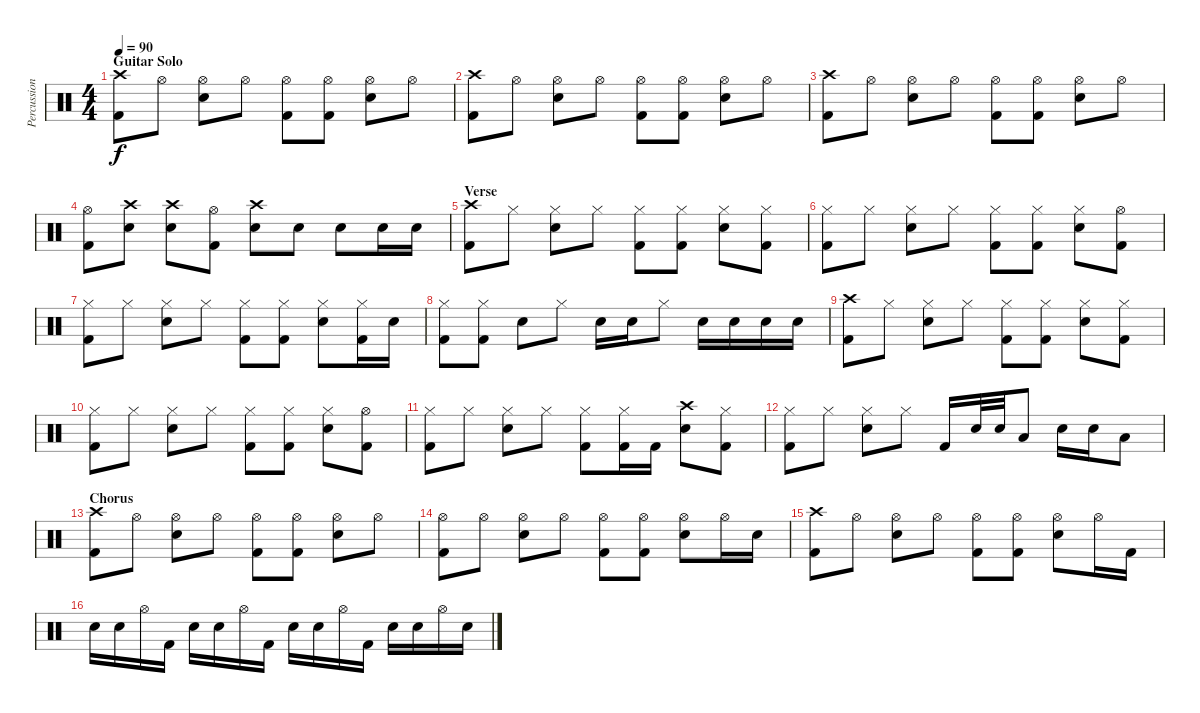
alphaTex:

\track ("Percussion" "Percussion") {instrument percussion}
\staff {score}
\articulation defaults
\ts (4 4)
\section ("" "Guitar Solo")
\tempo 90
\clef neutral
\ks c
("Crash high (hit)" "Kick (hit) 2").8{dy f} "Hi-Hat (open)".8 ("Hi-Hat (open)" "Electric Snare (hit)").8 "Hi-Hat (open)".8 ("Hi-Hat (open)" "Kick (hit) 2").8 ("Hi-Hat (open)" "Kick (hit) 2").8 ("Hi-Hat (open)" "Electric Snare (hit)").8 "Hi-Hat (open)".8 |
("Crash high (hit)" "Kick (hit) 2").8 "Hi-Hat (open)".8 ("Hi-Hat (open)" "Electric Snare (hit)").8 "Hi-Hat (open)".8 ("Hi-Hat (open)" "Kick (hit) 2").8 ("Hi-Hat (open)" "Kick (hit) 2").8 ("Hi-Hat (open)" "Electric Snare (hit)").8 "Hi-Hat (open)".8 |
("Crash high (hit)" "Kick (hit) 2").8 "Hi-Hat (open)".8 ("Hi-Hat (open)" "Electric Snare (hit)").8 "Hi-Hat (open)".8 ("Hi-Hat (open)" "Kick (hit) 2").8 ("Hi-Hat (open)" "Kick (hit) 2").8 ("Hi-Hat (open)" "Electric Snare (hit)").8 "Hi-Hat (open)".8 |
("Hi-Hat (open)" "Kick (hit) 2").8 ("Crash high (hit)" "Electric Snare (hit)").8 ("Crash high (hit)" "Electric Snare (hit)").8 ("Hi-Hat (open)" "Kick (hit) 2").8 ("Crash high (hit)" "Electric Snare (hit)").8 "Electric Snare (hit)".8 "Electric Snare (hit)".8 "Electric Snare (hit)".16 "Electric Snare (hit)".16 |
\section ("" "Verse")
("Crash high (hit)" "Kick (hit) 2").8 "Hi-Hat (closed)".8 ("Hi-Hat (closed)" "Electric Snare (hit)").8 "Hi-Hat (closed)".8 ("Hi-Hat (closed)" "Kick (hit) 2").8 ("Hi-Hat (closed)" "Kick (hit) 2").8 ("Hi-Hat (closed)" "Electric Snare (hit)").8 ("Hi-Hat (closed)" "Kick (hit) 2").8 |
("Hi-Hat (closed)" "Kick (hit) 2").8 "Hi-Hat (closed)".8 ("Hi-Hat (closed)" "Electric Snare (hit)").8 "Hi-Hat (closed)".8 ("Hi-Hat (closed)" "Kick (hit) 2").8 ("Hi-Hat (closed)" "Kick (hit) 2").8 ("Hi-Hat (closed)" "Electric Snare (hit)").8 ("Hi-Hat (open)" "Kick (hit) 2").8 |
("Hi-Hat (closed)" "Kick (hit) 2").8 "Hi-Hat (closed)".8 ("Hi-Hat (closed)" "Electric Snare (hit)").8 "Hi-Hat (closed)".8 ("Hi-Hat (closed)" "Kick (hit) 2").8 ("Hi-Hat (closed)" "Kick (hit) 2").8 ("Hi-Hat (closed)" "Electric Snare (hit)").8 ("Hi-Hat (closed)" "Kick (hit) 2").16 "Electric Snare (hit)".16 |
("Hi-Hat (closed)" "Kick (hit) 2").8 ("Hi-Hat (closed)" "Kick (hit) 2").8 "Electric Snare (hit)".8 "Hi-Hat (closed)".8 "Electric Snare (hit)".16 "Electric Snare (hit)".16 "Hi-Hat (closed)".8 "Electric Snare (hit)".16 "Electric Snare (hit)".16 "Electric Snare (hit)".16 "Electric Snare (hit)".16 |
("Crash high (hit)" "Kick (hit) 2").8 "Hi-Hat (closed)".8 ("Hi-Hat (closed)" "Electric Snare (hit)").8 "Hi-Hat (closed)".8 ("Hi-Hat (closed)" "Kick (hit) 2").8 ("Hi-Hat (closed)" "Kick (hit) 2").8 ("Hi-Hat (closed)" "Electric Snare (hit)").8 ("Hi-Hat (closed)" "Kick (hit) 2").8 |
("Hi-Hat (closed)" "Kick (hit) 2").8 "Hi-Hat (closed)".8 ("Hi-Hat (closed)" "Electric Snare (hit)").8 "Hi-Hat (closed)".8 ("Hi-Hat (closed)" "Kick (hit) 2").8 ("Hi-Hat (closed)" "Kick (hit) 2").8 ("Hi-Hat (closed)" "Electric Snare (hit)").8 ("Hi-Hat (open)" "Kick (hit) 2").8 |
("Hi-Hat (closed)" "Kick (hit) 2").8 "Hi-Hat (closed)".8 ("Hi-Hat (closed)" "Electric Snare (hit)").8 "Hi-Hat (closed)".8 ("Hi-Hat (closed)" "Kick (hit) 2").8 ("Hi-Hat (closed)" "Kick (hit) 2").16 "Kick (hit) 2".16 ("Crash high (hit)" "Electric Snare (hit)").8 ("Hi-Hat (closed)" "Kick (hit) 2").8 |
("Hi-Hat (closed)" "Kick (hit) 2").8 "Hi-Hat (closed)".8 ("Hi-Hat (closed)" "Electric Snare (hit)").8 "Hi-Hat (closed)".8 "Kick (hit) 2".16 "Electric Snare (hit)".32 "Electric Snare (hit)".32 "Low Floor Tom (hit)".8 "Electric Snare (hit)".16 "Electric Snare (hit)".16 "Low Tom (hit)".8 |
\section ("" "Chorus")
("Crash high (hit)" "Kick (hit) 2").8 "Hi-Hat (open)".8 ("Hi-Hat (open)" "Electric Snare (hit)").8 "Hi-Hat (open)".8 ("Hi-Hat (open)" "Kick (hit) 2").8 ("Hi-Hat (open)" "Kick (hit) 2").8 ("Hi-Hat (open)" "Electric Snare (hit)").8 "Hi-Hat (open)".8 |
("Hi-Hat (open)" "Kick (hit) 2").8 "Hi-Hat (open)".8 ("Hi-Hat (open)" "Electric Snare (hit)").8 "Hi-Hat (open)".8 ("Hi-Hat (open)" "Kick (hit) 2").8 ("Hi-Hat (open)" "Kick (hit) 2").8 ("Hi-Hat (open)" "Electric Snare (hit)").8 "Hi-Hat (open)".16 "Electric Snare (hit)".16 |
("Crash high (hit)" "Kick (hit) 2").8 "Hi-Hat (open)".8 ("Hi-Hat (open)" "Electric Snare (hit)").8 "Hi-Hat (open)".8 ("Hi-Hat (open)" "Kick (hit) 2").8 ("Hi-Hat (open)" "Kick (hit) 2").8 ("Hi-Hat (open)" "Electric Snare (hit)").8 "Hi-Hat (open)".16 "Kick (hit) 2".16 |
"Electric Snare (hit)".16 "Electric Snare (hit)".16 "Hi-Hat (open)".16 "Kick (hit) 2".16 "Electric Snare (hit)".16 "Electric Snare (hit)".16 "Hi-Hat (open)".16 "Kick (hit) 2".16 "Electric Snare (hit)".16 "Electric Snare (hit)".16 "Hi-Hat (open)".16 "Kick (hit) 2".16 "Electric Snare (hit)".16 "Electric Snare (hit)".16 "Hi-Hat (open)".16 "Electric Snare (hit)".16
